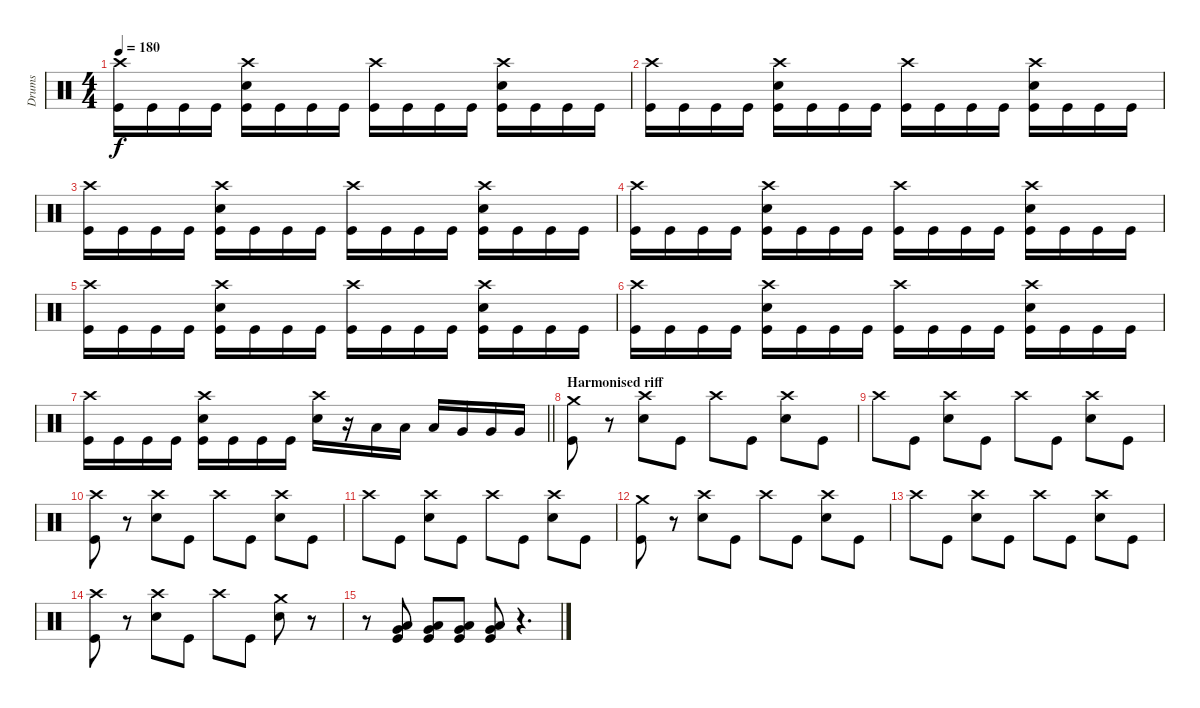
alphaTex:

\track ("Drums" "Drums") {instrument percussion}
\staff {score}
\articulation defaults
\ts (4 4)
\tempo 180
\clef neutral
\ks c
("Crash high (hit)" "Kick (hit)").16{dy f} "Kick (hit)".16 "Kick (hit)".16 "Kick (hit)".16 ("Crash high (hit)" "Electric Snare (hit)" "Kick (hit)").16 "Kick (hit)".16 "Kick (hit)".16 "Kick (hit)".16 ("Crash high (hit)" "Kick (hit)").16 "Kick (hit)".16 "Kick (hit)".16 "Kick (hit)".16 ("Crash high (hit)" "Electric Snare (hit)" "Kick (hit)").16 "Kick (hit)".16 "Kick (hit)".16 "Kick (hit)".16 |
("Crash high (hit)" "Kick (hit)").16 "Kick (hit)".16 "Kick (hit)".16 "Kick (hit)".16 ("Crash high (hit)" "Electric Snare (hit)" "Kick (hit)").16 "Kick (hit)".16 "Kick (hit)".16 "Kick (hit)".16 ("Crash high (hit)" "Kick (hit)").16 "Kick (hit)".16 "Kick (hit)".16 "Kick (hit)".16 ("Crash high (hit)" "Electric Snare (hit)" "Kick (hit)").16 "Kick (hit)".16 "Kick (hit)".16 "Kick (hit)".16 |
("Crash high (hit)" "Kick (hit)").16 "Kick (hit)".16 "Kick (hit)".16 "Kick (hit)".16 ("Crash high (hit)" "Electric Snare (hit)" "Kick (hit)").16 "Kick (hit)".16 "Kick (hit)".16 "Kick (hit)".16 ("Crash high (hit)" "Kick (hit)").16 "Kick (hit)".16 "Kick (hit)".16 "Kick (hit)".16 ("Crash high (hit)" "Electric Snare (hit)" "Kick (hit)").16 "Kick (hit)".16 "Kick (hit)".16 "Kick (hit)".16 |
("Crash high (hit)" "Kick (hit)").16 "Kick (hit)".16 "Kick (hit)".16 "Kick (hit)".16 ("Crash high (hit)" "Electric Snare (hit)" "Kick (hit)").16 "Kick (hit)".16 "Kick (hit)".16 "Kick (hit)".16 ("Crash high (hit)" "Kick (hit)").16 "Kick (hit)".16 "Kick (hit)".16 "Kick (hit)".16 ("Crash high (hit)" "Electric Snare (hit)" "Kick (hit)").16 "Kick (hit)".16 "Kick (hit)".16 "Kick (hit)".16 |
("Crash high (hit)" "Kick (hit)").16 "Kick (hit)".16 "Kick (hit)".16 "Kick (hit)".16 ("Crash high (hit)" "Electric Snare (hit)" "Kick (hit)").16 "Kick (hit)".16 "Kick (hit)".16 "Kick (hit)".16 ("Crash high (hit)" "Kick (hit)").16 "Kick (hit)".16 "Kick (hit)".16 "Kick (hit)".16 ("Crash high (hit)" "Electric Snare (hit)" "Kick (hit)").16 "Kick (hit)".16 "Kick (hit)".16 "Kick (hit)".16 |
("Crash high (hit)" "Kick (hit)").16 "Kick (hit)".16 "Kick (hit)".16 "Kick (hit)".16 ("Crash high (hit)" "Electric Snare (hit)" "Kick (hit)").16 "Kick (hit)".16 "Kick (hit)".16 "Kick (hit)".16 ("Crash high (hit)" "Kick (hit)").16 "Kick (hit)".16 "Kick (hit)".16 "Kick (hit)".16 ("Crash high (hit)" "Electric Snare (hit)" "Kick (hit)").16 "Kick (hit)".16 "Kick (hit)".16 "Kick (hit)".16 |
\barLineRight lightlight
("Crash high (hit)" "Kick (hit)").16 "Kick (hit)".16 "Kick (hit)".16 "Kick (hit)".16 ("Crash high (hit)" "Electric Snare (hit)" "Kick (hit)").16 "Kick (hit)".16 "Kick (hit)".16 "Kick (hit)".16 ("Crash high (hit)" "Electric Snare (hit)").16 r.16 "Low Tom (hit)".16 "Low Tom (hit)".16 "Low Tom (hit)".16 "Very Low Tom (hit)".16 "Very Low Tom (hit)".16 "Very Low Tom (hit)".16 |
\section ("" "Harmonised riff")
("Crash medium (hit)" "Kick (hit)").8 r.8 ("Crash high (hit)" "Electric Snare (hit)").8 "Kick (hit)".8 "Crash high (hit)".8 "Kick (hit)".8 ("Crash high (hit)" "Electric Snare (hit)").8 "Kick (hit)".8 |
"Crash high (hit)".8 "Kick (hit)".8 ("Crash high (hit)" "Electric Snare (hit)").8 "Kick (hit)".8 "Crash high (hit)".8 "Kick (hit)".8 ("Crash high (hit)" "Electric Snare (hit)").8 "Kick (hit)".8 |
("Crash high (hit)" "Kick (hit)").8 r.8 ("Crash high (hit)" "Electric Snare (hit)").8 "Kick (hit)".8 "Crash high (hit)".8 "Kick (hit)".8 ("Crash high (hit)" "Electric Snare (hit)").8 "Kick (hit)".8 |
"Crash high (hit)".8 "Kick (hit)".8 ("Crash high (hit)" "Electric Snare (hit)").8 "Kick (hit)".8 "Crash high (hit)".8 "Kick (hit)".8 ("Crash high (hit)" "Electric Snare (hit)").8 "Kick (hit)".8 |
("Crash medium (hit)" "Kick (hit)").8 r.8 ("Crash high (hit)" "Electric Snare (hit)").8 "Kick (hit)".8 "Crash high (hit)".8 "Kick (hit)".8 ("Crash high (hit)" "Electric Snare (hit)").8 "Kick (hit)".8 |
"Crash high (hit)".8 "Kick (hit)".8 ("Crash high (hit)" "Electric Snare (hit)").8 "Kick (hit)".8 "Crash high (hit)".8 "Kick (hit)".8 ("Crash high (hit)" "Electric Snare (hit)").8 "Kick (hit)".8 |
("Crash high (hit)" "Kick (hit)").8 r.8 ("Crash high (hit)" "Electric Snare (hit)").8 "Kick (hit)".8 "Crash high (hit)".8 "Kick (hit)".8 ("Crash medium (hit)" "Electric Snare (hit)").8 r.8 |
r.8 ("Low Tom (hit)" "Very Low Tom (hit)" "Kick (hit)").8 ("Low Tom (hit)" "Very Low Tom (hit)" "Kick (hit)").8 ("Low Tom (hit)" "Very Low Tom (hit)" "Kick (hit)").8 ("Low Tom (hit)" "Very Low Tom (hit)" "Kick (hit)").8 r.4{d}
